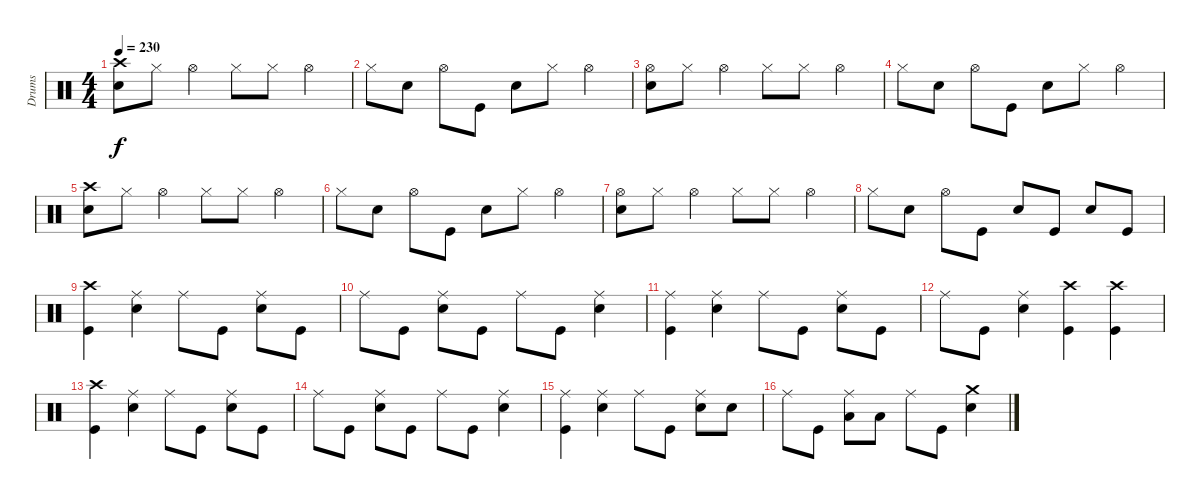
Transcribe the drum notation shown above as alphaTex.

\track ("Drums" "Drums") {instrument percussion}
\staff {score}
\articulation defaults
\ts (4 4)
\tempo 230
\clef neutral
\ks c
("Crash high (hit)" "Electric Snare (hit)").8{dy f} "Hi-Hat (closed)".8 "Hi-Hat (open)".4 "Hi-Hat (closed)".8 "Hi-Hat (closed)".8 "Hi-Hat (open)".4 |
"Hi-Hat (closed)".8 "Electric Snare (hit)".8 "Hi-Hat (open)".8 "Kick (hit)".8 "Electric Snare (hit)".8 "Hi-Hat (closed)".8 "Hi-Hat (open)".4 |
("Hi-Hat (open)" "Electric Snare (hit)").8 "Hi-Hat (closed)".8 "Hi-Hat (open)".4 "Hi-Hat (closed)".8 "Hi-Hat (closed)".8 "Hi-Hat (open)".4 |
"Hi-Hat (closed)".8 "Electric Snare (hit)".8 "Hi-Hat (open)".8 "Kick (hit)".8 "Electric Snare (hit)".8 "Hi-Hat (closed)".8 "Hi-Hat (open)".4 |
("Crash high (hit)" "Electric Snare (hit)").8 "Hi-Hat (closed)".8 "Hi-Hat (open)".4 "Hi-Hat (closed)".8 "Hi-Hat (closed)".8 "Hi-Hat (open)".4 |
"Hi-Hat (closed)".8 "Electric Snare (hit)".8 "Hi-Hat (open)".8 "Kick (hit)".8 "Electric Snare (hit)".8 "Hi-Hat (closed)".8 "Hi-Hat (open)".4 |
("Hi-Hat (open)" "Electric Snare (hit)").8 "Hi-Hat (closed)".8 "Hi-Hat (open)".4 "Hi-Hat (closed)".8 "Hi-Hat (closed)".8 "Hi-Hat (open)".4 |
"Hi-Hat (closed)".8 "Electric Snare (hit)".8 "Hi-Hat (open)".8 "Kick (hit)".8 "Electric Snare (hit)".8 "Kick (hit)".8 "Electric Snare (hit)".8 "Kick (hit)".8 |
("Crash high (hit)" "Kick (hit)").4 ("Ride (middle)" "Electric Snare (hit)").4 "Ride (middle)".8 "Kick (hit)".8 ("Ride (middle)" "Electric Snare (hit)").8 "Kick (hit)".8 |
"Ride (middle)".8 "Kick (hit)".8 ("Ride (middle)" "Electric Snare (hit)").8 "Kick (hit)".8 "Ride (middle)".8 "Kick (hit)".8 ("Ride (middle)" "Electric Snare (hit)").4 |
("Ride (middle)" "Kick (hit)").4 ("Ride (middle)" "Electric Snare (hit)").4 "Ride (middle)".8 "Kick (hit)".8 ("Ride (middle)" "Electric Snare (hit)").8 "Kick (hit)".8 |
"Ride (middle)".8 "Kick (hit)".8 ("Ride (middle)" "Electric Snare (hit)").4 ("Crash high (hit)" "Kick (hit)").4 ("Crash high (hit)" "Kick (hit)").4 |
("Crash high (hit)" "Kick (hit)").4 ("Ride (middle)" "Electric Snare (hit)").4 "Ride (middle)".8 "Kick (hit)".8 ("Ride (middle)" "Electric Snare (hit)").8 "Kick (hit)".8 |
"Ride (middle)".8 "Kick (hit)".8 ("Ride (middle)" "Electric Snare (hit)").8 "Kick (hit)".8 "Ride (middle)".8 "Kick (hit)".8 ("Ride (middle)" "Electric Snare (hit)").4 |
("Ride (middle)" "Kick (hit)").4 ("Ride (middle)" "Electric Snare (hit)").4 "Ride (middle)".8 "Kick (hit)".8 ("Ride (middle)" "Electric Snare (hit)").8 "Electric Snare (hit)".8 |
"Ride (middle)".8 "Kick (hit)".8 ("Ride (middle)" "Low Tom (hit)").8 "Low Tom (hit)".8 "Ride (middle)".8 "Kick (hit)".8 ("Crash medium (hit)" "Electric Snare (hit)").4
